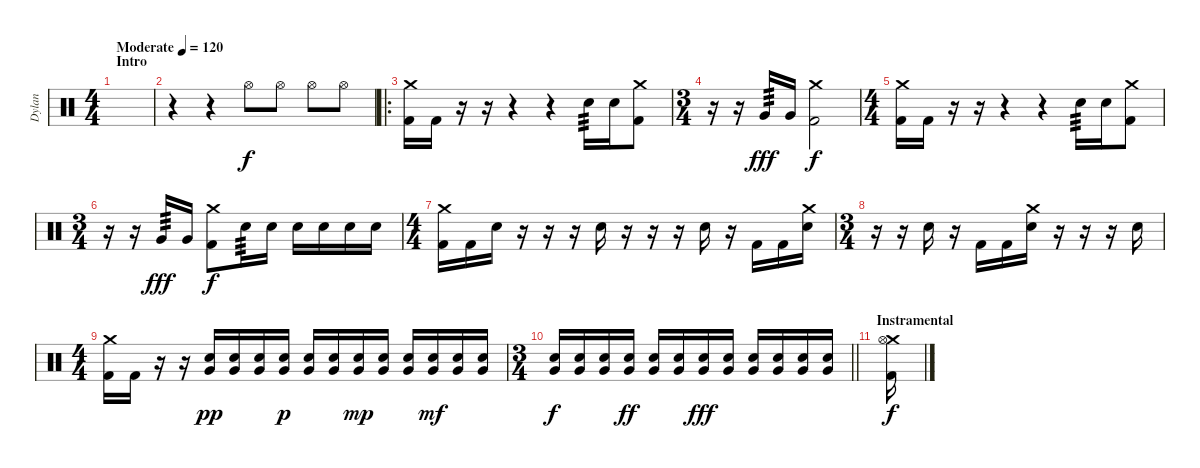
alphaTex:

\track ("Dylan" "Dylan") {instrument percussion}
\staff {score}
\articulation defaults
\ts (4 4)
\section ("" "Intro")
\tempo (120 "Moderate")
\clef neutral
\ks c
|
r.4 r.4 "Hi-Hat (open)".8 "Hi-Hat (open)".8 "Hi-Hat (open)".8 "Hi-Hat (open)".8 |
\ro
("Crash medium (hit)" "Kick (hit) 2").16 "Kick (hit) 2".16 r.16 r.16 r.4 r.4 "Electric Snare (hit)".16{tp 3} "Electric Snare (hit)".16 ("Crash medium (hit)" "Kick (hit) 2").8 |
\ts (3 4)
r.16 r.16 "Very Low Tom (hit)".16{tp 3 dy fff} "Very Low Tom (hit)".16 ("Crash medium (hit)" "Kick (hit) 2").2{dy f} |
\ts (4 4)
("Crash medium (hit)" "Kick (hit) 2").16 "Kick (hit) 2".16 r.16 r.16 r.4 r.4 "Electric Snare (hit)".16{tp 3} "Electric Snare (hit)".16 ("Crash medium (hit)" "Kick (hit) 2").8 |
\ts (3 4)
r.16 r.16 "Very Low Tom (hit)".16{tp 3 dy fff} "Very Low Tom (hit)".16 ("Crash medium (hit)" "Kick (hit) 2").8{dy f} "Electric Snare (hit)".16{tp 3} "Electric Snare (hit)".16 "Electric Snare (hit)".16 "Electric Snare (hit)".16 "Electric Snare (hit)".16 "Electric Snare (hit)".16 |
\ts (4 4)
("Crash medium (hit)" "Kick (hit) 2").16 "Kick (hit) 2".16 "Electric Snare (hit)".16 r.16 r.16 r.16 "Electric Snare (hit)".16 r.16 r.16 r.16 "Electric Snare (hit)".16 r.16 "Kick (hit) 2".16 "Kick (hit) 2".16 ("Crash medium (hit)" "Electric Snare (hit)").16 |
\ts (3 4)
r.16 r.16 "Electric Snare (hit)".16 r.16 "Kick (hit) 2".16 "Kick (hit) 2".16 ("Crash medium (hit)" "Electric Snare (hit)").16 r.16 r.16 r.16 "Electric Snare (hit)".16 |
\ts (4 4)
("Crash medium (hit)" "Kick (hit) 2").16 "Kick (hit) 2".16 r.16 r.16 ("Electric Snare (hit)" "Very Low Tom (hit)").16{dy pp} ("Electric Snare (hit)" "Very Low Tom (hit)").16 ("Electric Snare (hit)" "Very Low Tom (hit)").16 ("Electric Snare (hit)" "Very Low Tom (hit)").16{dy p} ("Electric Snare (hit)" "Very Low Tom (hit)").16 ("Electric Snare (hit)" "Very Low Tom (hit)").16 ("Electric Snare (hit)" "Very Low Tom (hit)").16{dy mp} ("Electric Snare (hit)" "Very Low Tom (hit)").16 ("Electric Snare (hit)" "Very Low Tom (hit)").16 ("Electric Snare (hit)" "Very Low Tom (hit)").16{dy mf} ("Electric Snare (hit)" "Very Low Tom (hit)").16 ("Electric Snare (hit)" "Very Low Tom (hit)").16 |
\ts (3 4)
\barLineRight lightlight
("Electric Snare (hit)" "Very Low Tom (hit)").16{dy f} ("Electric Snare (hit)" "Very Low Tom (hit)").16 ("Electric Snare (hit)" "Very Low Tom (hit)").16 ("Electric Snare (hit)" "Very Low Tom (hit)").16{dy ff} ("Electric Snare (hit)" "Very Low Tom (hit)").16 ("Electric Snare (hit)" "Very Low Tom (hit)").16 ("Electric Snare (hit)" "Very Low Tom (hit)").16{dy fff} ("Electric Snare (hit)" "Very Low Tom (hit)").16 ("Electric Snare (hit)" "Very Low Tom (hit)").16 ("Electric Snare (hit)" "Very Low Tom (hit)").16 ("Electric Snare (hit)" "Very Low Tom (hit)").16 ("Electric Snare (hit)" "Very Low Tom (hit)").16 |
\section ("" "Instramental")
("Crash medium (hit)" "Hi-Hat (open)" "Kick (hit) 2").16{dy f volume 16}
